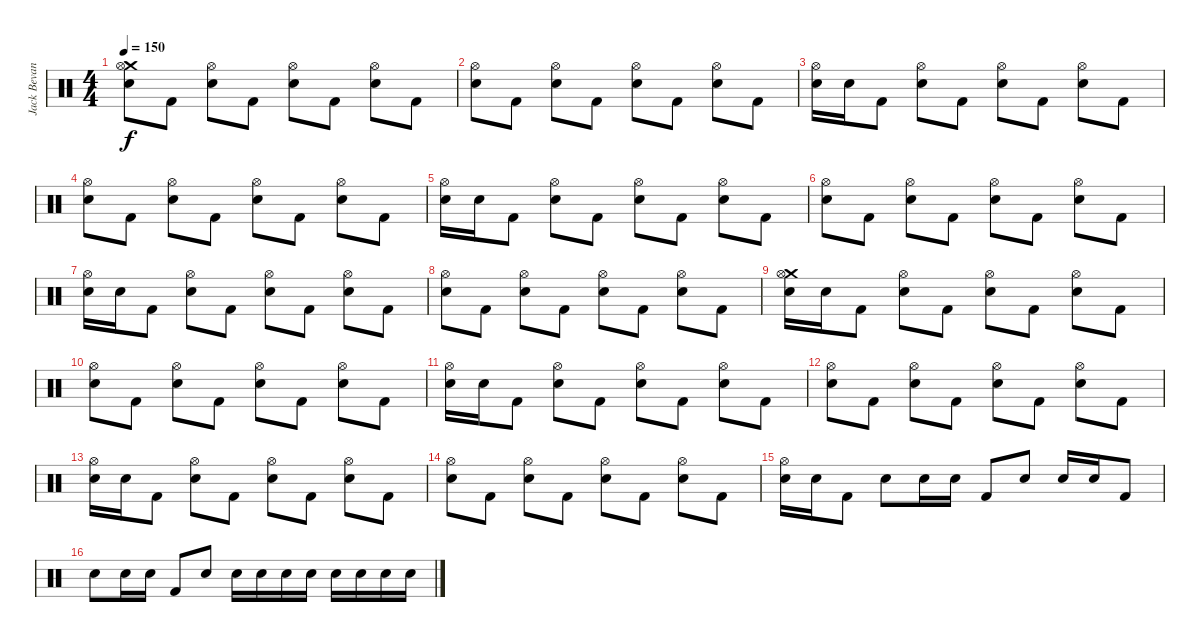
\track ("Jack Bevan (Percussion)" "Jack Bevan") {instrument percussion bank 255}
\staff {score}
\articulation defaults
\ts (4 4)
\tempo 150
\clef neutral
\ks c
("Crash medium (hit)" "Hi-Hat (open)" "Snare (hit) 2").8{dy f} "Kick (hit) 2".8 ("Hi-Hat (open)" "Snare (hit) 2").8 "Kick (hit) 2".8 ("Hi-Hat (open)" "Snare (hit) 2").8 "Kick (hit) 2".8 ("Hi-Hat (open)" "Snare (hit) 2").8 "Kick (hit) 2".8 |
("Hi-Hat (open)" "Snare (hit) 2").8 "Kick (hit) 2".8 ("Hi-Hat (open)" "Snare (hit) 2").8 "Kick (hit) 2".8 ("Hi-Hat (open)" "Snare (hit) 2").8 "Kick (hit) 2".8 ("Hi-Hat (open)" "Snare (hit) 2").8 "Kick (hit) 2".8 |
("Hi-Hat (open)" "Snare (hit) 2").16 "Snare (hit) 2".16 "Kick (hit) 2".8 ("Hi-Hat (open)" "Snare (hit) 2").8 "Kick (hit) 2".8 ("Hi-Hat (open)" "Snare (hit) 2").8 "Kick (hit) 2".8 ("Hi-Hat (open)" "Snare (hit) 2").8 "Kick (hit) 2".8 |
("Hi-Hat (open)" "Snare (hit) 2").8 "Kick (hit) 2".8 ("Hi-Hat (open)" "Snare (hit) 2").8 "Kick (hit) 2".8 ("Hi-Hat (open)" "Snare (hit) 2").8 "Kick (hit) 2".8 ("Hi-Hat (open)" "Snare (hit) 2").8 "Kick (hit) 2".8 |
("Hi-Hat (open)" "Snare (hit) 2").16 "Snare (hit) 2".16 "Kick (hit) 2".8 ("Hi-Hat (open)" "Snare (hit) 2").8 "Kick (hit) 2".8 ("Hi-Hat (open)" "Snare (hit) 2").8 "Kick (hit) 2".8 ("Hi-Hat (open)" "Snare (hit) 2").8 "Kick (hit) 2".8 |
("Hi-Hat (open)" "Snare (hit) 2").8 "Kick (hit) 2".8 ("Hi-Hat (open)" "Snare (hit) 2").8 "Kick (hit) 2".8 ("Hi-Hat (open)" "Snare (hit) 2").8 "Kick (hit) 2".8 ("Hi-Hat (open)" "Snare (hit) 2").8 "Kick (hit) 2".8 |
("Hi-Hat (open)" "Snare (hit) 2").16 "Snare (hit) 2".16 "Kick (hit) 2".8 ("Hi-Hat (open)" "Snare (hit) 2").8 "Kick (hit) 2".8 ("Hi-Hat (open)" "Snare (hit) 2").8 "Kick (hit) 2".8 ("Hi-Hat (open)" "Snare (hit) 2").8 "Kick (hit) 2".8 |
("Hi-Hat (open)" "Snare (hit) 2").8 "Kick (hit) 2".8 ("Hi-Hat (open)" "Snare (hit) 2").8 "Kick (hit) 2".8 ("Hi-Hat (open)" "Snare (hit) 2").8 "Kick (hit) 2".8 ("Hi-Hat (open)" "Snare (hit) 2").8 "Kick (hit) 2".8 |
("Crash medium (hit)" "Hi-Hat (open)" "Snare (hit) 2").16 "Snare (hit) 2".16 "Kick (hit) 2".8 ("Hi-Hat (open)" "Snare (hit) 2").8 "Kick (hit) 2".8 ("Hi-Hat (open)" "Snare (hit) 2").8 "Kick (hit) 2".8 ("Hi-Hat (open)" "Snare (hit) 2").8 "Kick (hit) 2".8 |
("Hi-Hat (open)" "Snare (hit) 2").8 "Kick (hit) 2".8 ("Hi-Hat (open)" "Snare (hit) 2").8 "Kick (hit) 2".8 ("Hi-Hat (open)" "Snare (hit) 2").8 "Kick (hit) 2".8 ("Hi-Hat (open)" "Snare (hit) 2").8 "Kick (hit) 2".8 |
("Hi-Hat (open)" "Snare (hit) 2").16 "Snare (hit) 2".16 "Kick (hit) 2".8 ("Hi-Hat (open)" "Snare (hit) 2").8 "Kick (hit) 2".8 ("Hi-Hat (open)" "Snare (hit) 2").8 "Kick (hit) 2".8 ("Hi-Hat (open)" "Snare (hit) 2").8 "Kick (hit) 2".8 |
("Hi-Hat (open)" "Snare (hit) 2").8 "Kick (hit) 2".8 ("Hi-Hat (open)" "Snare (hit) 2").8 "Kick (hit) 2".8 ("Hi-Hat (open)" "Snare (hit) 2").8 "Kick (hit) 2".8 ("Hi-Hat (open)" "Snare (hit) 2").8 "Kick (hit) 2".8 |
("Hi-Hat (open)" "Snare (hit) 2").16 "Snare (hit) 2".16 "Kick (hit) 2".8 ("Hi-Hat (open)" "Snare (hit) 2").8 "Kick (hit) 2".8 ("Hi-Hat (open)" "Snare (hit) 2").8 "Kick (hit) 2".8 ("Hi-Hat (open)" "Snare (hit) 2").8 "Kick (hit) 2".8 |
("Hi-Hat (open)" "Snare (hit) 2").8 "Kick (hit) 2".8 ("Hi-Hat (open)" "Snare (hit) 2").8 "Kick (hit) 2".8 ("Hi-Hat (open)" "Snare (hit) 2").8 "Kick (hit) 2".8 ("Hi-Hat (open)" "Snare (hit) 2").8 "Kick (hit) 2".8 |
("Hi-Hat (open)" "Snare (hit) 2").16 "Snare (hit) 2".16 "Kick (hit) 2".8 "Snare (hit) 2".8 "Snare (hit) 2".16 "Snare (hit) 2".16 "Kick (hit) 2".8 "Snare (hit) 2".8 "Snare (hit) 2".16 "Snare (hit) 2".16 "Kick (hit) 2".8 |
"Snare (hit) 2".8 "Snare (hit) 2".16 "Snare (hit) 2".16 "Kick (hit) 2".8 "Snare (hit) 2".8 "Snare (hit) 2".16 "Snare (hit) 2".16 "Snare (hit) 2".16 "Snare (hit) 2".16 "Snare (hit) 2".16 "Snare (hit) 2".16 "Snare (hit) 2".16 "Snare (hit) 2".16
